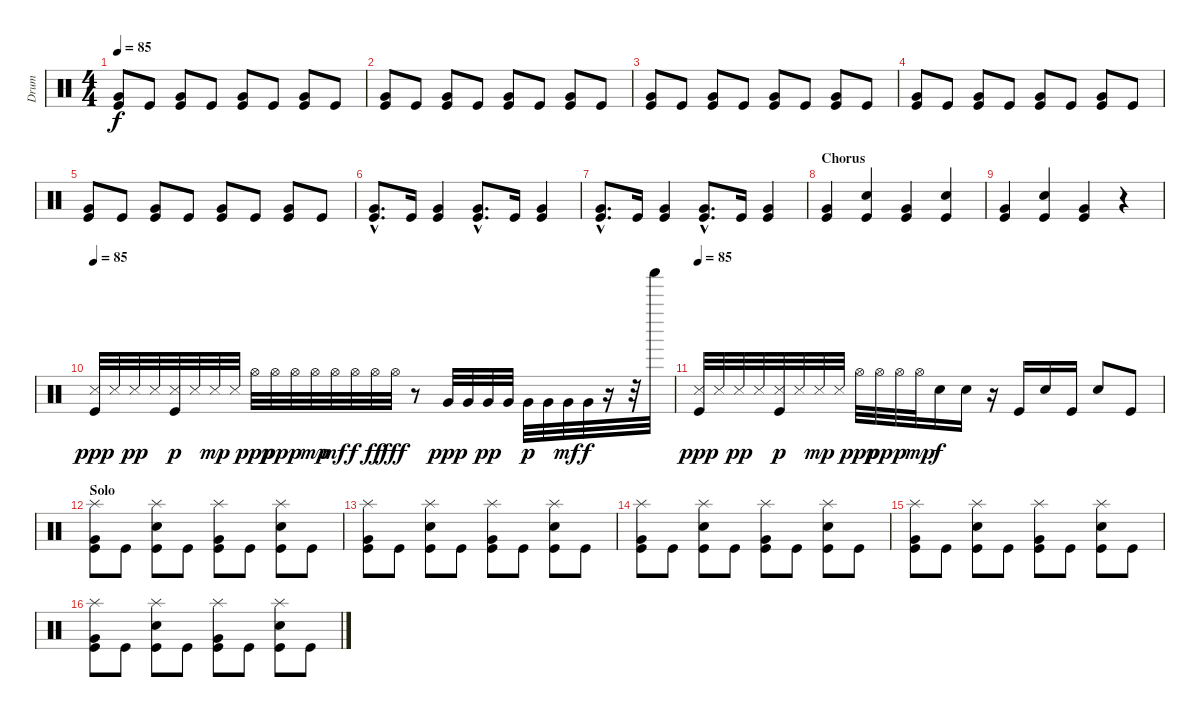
\track ("Drum" "Drum") {instrument percussion}
\staff {score}
\articulation defaults
\ts (4 4)
\tempo 85
\clef neutral
\ks c
("Very Low Tom (hit)" "Kick (hit)").8{dy f} "Kick (hit)".8 ("Very Low Tom (hit)" "Kick (hit)").8 "Kick (hit)".8 ("Very Low Tom (hit)" "Kick (hit)").8 "Kick (hit)".8 ("Very Low Tom (hit)" "Kick (hit)").8 "Kick (hit)".8 |
("Very Low Tom (hit)" "Kick (hit)").8 "Kick (hit)".8 ("Very Low Tom (hit)" "Kick (hit)").8 "Kick (hit)".8 ("Very Low Tom (hit)" "Kick (hit)").8 "Kick (hit)".8 ("Very Low Tom (hit)" "Kick (hit)").8 "Kick (hit)".8 |
("Very Low Tom (hit)" "Kick (hit)").8 "Kick (hit)".8 ("Very Low Tom (hit)" "Kick (hit)").8 "Kick (hit)".8 ("Very Low Tom (hit)" "Kick (hit)").8 "Kick (hit)".8 ("Very Low Tom (hit)" "Kick (hit)").8 "Kick (hit)".8 |
("Very Low Tom (hit)" "Kick (hit)").8 "Kick (hit)".8 ("Very Low Tom (hit)" "Kick (hit)").8 "Kick (hit)".8 ("Very Low Tom (hit)" "Kick (hit)").8 "Kick (hit)".8 ("Very Low Tom (hit)" "Kick (hit)").8 "Kick (hit)".8 |
("Very Low Tom (hit)" "Kick (hit)").8 "Kick (hit)".8 ("Very Low Tom (hit)" "Kick (hit)").8 "Kick (hit)".8 ("Very Low Tom (hit)" "Kick (hit)").8 "Kick (hit)".8 ("Very Low Tom (hit)" "Kick (hit)").8 "Kick (hit)".8 |
("Very Low Tom (hit)"{hac} "Kick (hit)"{hac}).8{d} "Kick (hit)".16 ("Very Low Tom (hit)" "Kick (hit)").4 ("Very Low Tom (hit)"{hac} "Kick (hit)"{hac}).8{d} "Kick (hit)".16 ("Very Low Tom (hit)" "Kick (hit)").4 |
("Very Low Tom (hit)"{hac} "Kick (hit)"{hac}).8{d} "Kick (hit)".16 ("Very Low Tom (hit)" "Kick (hit)").4 ("Very Low Tom (hit)"{hac} "Kick (hit)"{hac}).8{d} "Kick (hit)".16 ("Very Low Tom (hit)" "Kick (hit)").4 |
\section ("" "Chorus")
("Very Low Tom (hit)" "Kick (hit)").4 ("Snare (hit) 2" "Kick (hit)").4 ("Very Low Tom (hit)" "Kick (hit)").4 ("Snare (hit) 2" "Kick (hit)").4 |
("Very Low Tom (hit)" "Kick (hit)").4 ("Snare (hit) 2" "Kick (hit)").4 ("Very Low Tom (hit)" "Kick (hit)").4 r.4 |
\tempo 85
("Snare (side stick) 3" "Kick (hit)").32{dy ppp} "Snare (side stick) 3".32 "Snare (side stick) 3".32{dy pp} "Snare (side stick) 3".32 ("Snare (side stick) 3" "Kick (hit)").32{dy p} "Snare (side stick) 3".32 "Snare (side stick) 3".32{dy mp} "Snare (side stick) 3".32 "Hi-Hat (open)".32{dy ppp} "Hi-Hat (open)".32{dy pp} "Hi-Hat (open)".32{dy p} "Hi-Hat (open)".32{dy mp} "Hi-Hat (open)".32{dy mf} "Hi-Hat (open)".32{dy f} "Hi-Hat (open)".32{dy ff} "Hi-Hat (open)".32{dy fff} r.8 "Very Low Tom (hit)".32{dy ppp} "Very Low Tom (hit)".32 "Very Low Tom (hit)".32{dy pp} "Very Low Tom (hit)".32 "Very Low Tom (hit)".32{dy p} "Very Low Tom (hit)".32 "Very Low Tom (hit)".32{dy mf} "Very Low Tom (hit)".32{dy f} r.16 r.32 "Shaker (hit)".32 |
\tempo 85
("Snare (side stick) 3" "Kick (hit)").32{dy ppp} "Snare (side stick) 3".32 "Snare (side stick) 3".32{dy pp} "Snare (side stick) 3".32 ("Snare (side stick) 3" "Kick (hit)").32{dy p} "Snare (side stick) 3".32 "Snare (side stick) 3".32{dy mp} "Snare (side stick) 3".32 "Hi-Hat (open)".32{dy ppp} "Hi-Hat (open)".32{dy pp} "Hi-Hat (open)".32{dy p} "Hi-Hat (open)".32{dy mp} "Snare (hit) 2".16{dy f} "Snare (hit) 2".16 r.16 "Kick (hit)".16 "Snare (hit) 2".16 "Kick (hit)".16 "Snare (hit) 2".8 "Kick (hit)".8 |
\section ("" "Solo")
("Splash (hit)" "Very Low Tom (hit)" "Kick (hit)").8 "Kick (hit)".8 ("Splash (hit)" "Snare (hit) 2" "Kick (hit)").8 "Kick (hit)".8 ("Splash (hit)" "Very Low Tom (hit)" "Kick (hit)").8 "Kick (hit)".8 ("Splash (hit)" "Snare (hit) 2" "Kick (hit)").8 "Kick (hit)".8 |
("Splash (hit)" "Very Low Tom (hit)" "Kick (hit)").8 "Kick (hit)".8 ("Splash (hit)" "Snare (hit) 2" "Kick (hit)").8 "Kick (hit)".8 ("Splash (hit)" "Very Low Tom (hit)" "Kick (hit)").8 "Kick (hit)".8 ("Splash (hit)" "Snare (hit) 2" "Kick (hit)").8 "Kick (hit)".8 |
("Splash (hit)" "Very Low Tom (hit)" "Kick (hit)").8 "Kick (hit)".8 ("Splash (hit)" "Snare (hit) 2" "Kick (hit)").8 "Kick (hit)".8 ("Splash (hit)" "Very Low Tom (hit)" "Kick (hit)").8 "Kick (hit)".8 ("Splash (hit)" "Snare (hit) 2" "Kick (hit)").8 "Kick (hit)".8 |
("Splash (hit)" "Very Low Tom (hit)" "Kick (hit)").8 "Kick (hit)".8 ("Splash (hit)" "Snare (hit) 2" "Kick (hit)").8 "Kick (hit)".8 ("Splash (hit)" "Very Low Tom (hit)" "Kick (hit)").8 "Kick (hit)".8 ("Splash (hit)" "Snare (hit) 2" "Kick (hit)").8 "Kick (hit)".8 |
("Splash (hit)" "Very Low Tom (hit)" "Kick (hit)").8 "Kick (hit)".8 ("Splash (hit)" "Snare (hit) 2" "Kick (hit)").8 "Kick (hit)".8 ("Splash (hit)" "Very Low Tom (hit)" "Kick (hit)").8 "Kick (hit)".8 ("Splash (hit)" "Snare (hit) 2" "Kick (hit)").8 "Kick (hit)".8
